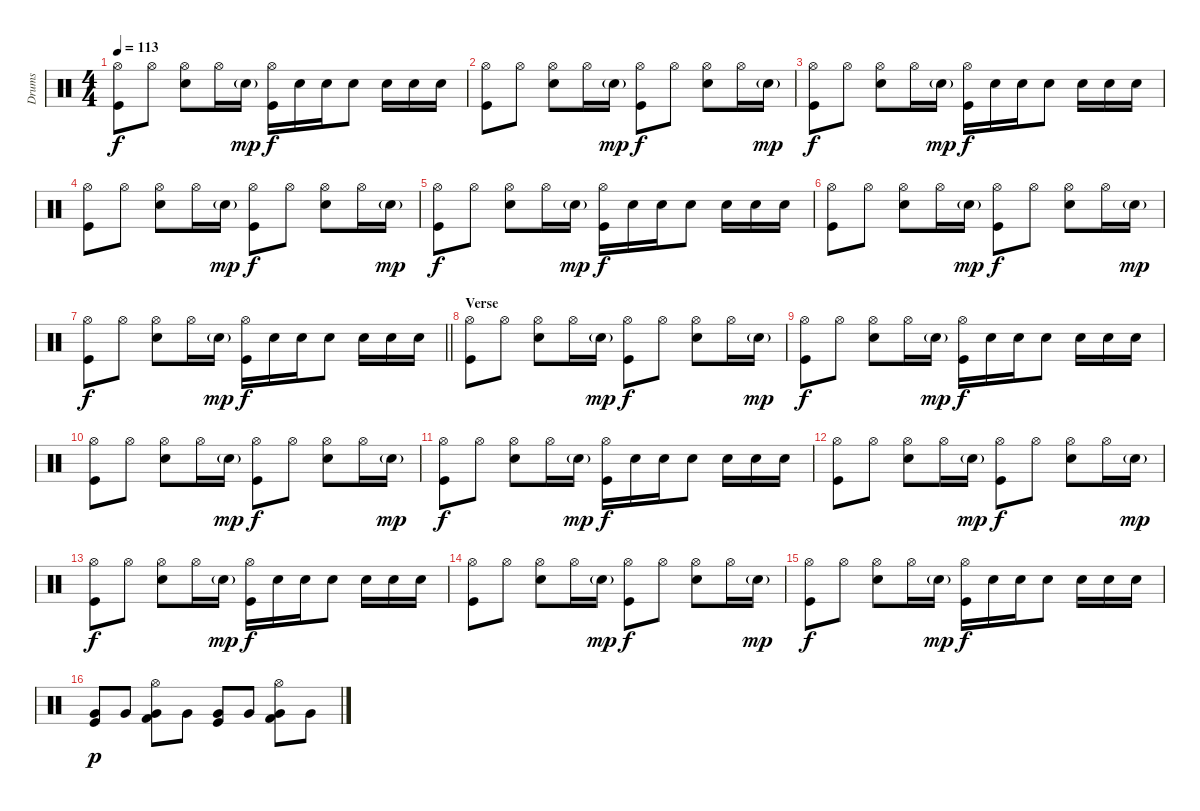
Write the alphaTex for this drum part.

\track ("Drums" "Drums") {instrument percussion}
\staff {score}
\articulation defaults
\ts (4 4)
\tempo 113
\clef neutral
\ks c
("Hi-Hat (open)" "Kick (hit)").8{dy f} "Hi-Hat (open)".8 ("Hi-Hat (open)" "Snare (hit) 2").8 "Hi-Hat (open)".16 "Snare (hit) 2"{g}.16{dy mp} ("Hi-Hat (open)" "Kick (hit)").16{dy f} "Snare (hit) 2".16 "Snare (hit) 2".16 "Snare (hit) 2".8 "Snare (hit) 2".16 "Snare (hit) 2".16 "Snare (hit) 2".16 |
("Hi-Hat (open)" "Kick (hit)").8 "Hi-Hat (open)".8 ("Hi-Hat (open)" "Snare (hit) 2").8 "Hi-Hat (open)".16 "Snare (hit) 2"{g}.16{dy mp} ("Hi-Hat (open)" "Kick (hit)").8{dy f} "Hi-Hat (open)".8 ("Hi-Hat (open)" "Snare (hit) 2").8 "Hi-Hat (open)".16 "Snare (hit) 2"{g}.16{dy mp} |
("Hi-Hat (open)" "Kick (hit)").8{dy f} "Hi-Hat (open)".8 ("Hi-Hat (open)" "Snare (hit) 2").8 "Hi-Hat (open)".16 "Snare (hit) 2"{g}.16{dy mp} ("Hi-Hat (open)" "Kick (hit)").16{dy f} "Snare (hit) 2".16 "Snare (hit) 2".16 "Snare (hit) 2".8 "Snare (hit) 2".16 "Snare (hit) 2".16 "Snare (hit) 2".16 |
("Hi-Hat (open)" "Kick (hit)").8 "Hi-Hat (open)".8 ("Hi-Hat (open)" "Snare (hit) 2").8 "Hi-Hat (open)".16 "Snare (hit) 2"{g}.16{dy mp} ("Hi-Hat (open)" "Kick (hit)").8{dy f} "Hi-Hat (open)".8 ("Hi-Hat (open)" "Snare (hit) 2").8 "Hi-Hat (open)".16 "Snare (hit) 2"{g}.16{dy mp} |
("Hi-Hat (open)" "Kick (hit)").8{dy f} "Hi-Hat (open)".8 ("Hi-Hat (open)" "Snare (hit) 2").8 "Hi-Hat (open)".16 "Snare (hit) 2"{g}.16{dy mp} ("Hi-Hat (open)" "Kick (hit)").16{dy f} "Snare (hit) 2".16 "Snare (hit) 2".16 "Snare (hit) 2".8 "Snare (hit) 2".16 "Snare (hit) 2".16 "Snare (hit) 2".16 |
("Hi-Hat (open)" "Kick (hit)").8 "Hi-Hat (open)".8 ("Hi-Hat (open)" "Snare (hit) 2").8 "Hi-Hat (open)".16 "Snare (hit) 2"{g}.16{dy mp} ("Hi-Hat (open)" "Kick (hit)").8{dy f} "Hi-Hat (open)".8 ("Hi-Hat (open)" "Snare (hit) 2").8 "Hi-Hat (open)".16 "Snare (hit) 2"{g}.16{dy mp} |
\barLineRight lightlight
("Hi-Hat (open)" "Kick (hit)").8{dy f} "Hi-Hat (open)".8 ("Hi-Hat (open)" "Snare (hit) 2").8 "Hi-Hat (open)".16 "Snare (hit) 2"{g}.16{dy mp} ("Hi-Hat (open)" "Kick (hit)").16{dy f} "Snare (hit) 2".16 "Snare (hit) 2".16 "Snare (hit) 2".8 "Snare (hit) 2".16 "Snare (hit) 2".16 "Snare (hit) 2".16 |
\section ("" "Verse")
("Hi-Hat (open)" "Kick (hit)").8 "Hi-Hat (open)".8 ("Hi-Hat (open)" "Snare (hit) 2").8 "Hi-Hat (open)".16 "Snare (hit) 2"{g}.16{dy mp} ("Hi-Hat (open)" "Kick (hit)").8{dy f} "Hi-Hat (open)".8 ("Hi-Hat (open)" "Snare (hit) 2").8 "Hi-Hat (open)".16 "Snare (hit) 2"{g}.16{dy mp} |
("Hi-Hat (open)" "Kick (hit)").8{dy f} "Hi-Hat (open)".8 ("Hi-Hat (open)" "Snare (hit) 2").8 "Hi-Hat (open)".16 "Snare (hit) 2"{g}.16{dy mp} ("Hi-Hat (open)" "Kick (hit)").16{dy f} "Snare (hit) 2".16 "Snare (hit) 2".16 "Snare (hit) 2".8 "Snare (hit) 2".16 "Snare (hit) 2".16 "Snare (hit) 2".16 |
("Hi-Hat (open)" "Kick (hit)").8 "Hi-Hat (open)".8 ("Hi-Hat (open)" "Snare (hit) 2").8 "Hi-Hat (open)".16 "Snare (hit) 2"{g}.16{dy mp} ("Hi-Hat (open)" "Kick (hit)").8{dy f} "Hi-Hat (open)".8 ("Hi-Hat (open)" "Snare (hit) 2").8 "Hi-Hat (open)".16 "Snare (hit) 2"{g}.16{dy mp} |
("Hi-Hat (open)" "Kick (hit)").8{dy f} "Hi-Hat (open)".8 ("Hi-Hat (open)" "Snare (hit) 2").8 "Hi-Hat (open)".16 "Snare (hit) 2"{g}.16{dy mp} ("Hi-Hat (open)" "Kick (hit)").16{dy f} "Snare (hit) 2".16 "Snare (hit) 2".16 "Snare (hit) 2".8 "Snare (hit) 2".16 "Snare (hit) 2".16 "Snare (hit) 2".16 |
("Hi-Hat (open)" "Kick (hit)").8 "Hi-Hat (open)".8 ("Hi-Hat (open)" "Snare (hit) 2").8 "Hi-Hat (open)".16 "Snare (hit) 2"{g}.16{dy mp} ("Hi-Hat (open)" "Kick (hit)").8{dy f} "Hi-Hat (open)".8 ("Hi-Hat (open)" "Snare (hit) 2").8 "Hi-Hat (open)".16 "Snare (hit) 2"{g}.16{dy mp} |
("Hi-Hat (open)" "Kick (hit)").8{dy f} "Hi-Hat (open)".8 ("Hi-Hat (open)" "Snare (hit) 2").8 "Hi-Hat (open)".16 "Snare (hit) 2"{g}.16{dy mp} ("Hi-Hat (open)" "Kick (hit)").16{dy f} "Snare (hit) 2".16 "Snare (hit) 2".16 "Snare (hit) 2".8 "Snare (hit) 2".16 "Snare (hit) 2".16 "Snare (hit) 2".16 |
("Hi-Hat (open)" "Kick (hit)").8 "Hi-Hat (open)".8 ("Hi-Hat (open)" "Snare (hit) 2").8 "Hi-Hat (open)".16 "Snare (hit) 2"{g}.16{dy mp} ("Hi-Hat (open)" "Kick (hit)").8{dy f} "Hi-Hat (open)".8 ("Hi-Hat (open)" "Snare (hit) 2").8 "Hi-Hat (open)".16 "Snare (hit) 2"{g}.16{dy mp} |
("Hi-Hat (open)" "Kick (hit)").8{dy f} "Hi-Hat (open)".8 ("Hi-Hat (open)" "Snare (hit) 2").8 "Hi-Hat (open)".16 "Snare (hit) 2"{g}.16{dy mp} ("Hi-Hat (open)" "Kick (hit)").16{dy f} "Snare (hit) 2".16 "Snare (hit) 2".16 "Snare (hit) 2".8 "Snare (hit) 2".16 "Snare (hit) 2".16 "Snare (hit) 2".16 |
("Very Low Tom (hit)" "Kick (hit)").8{dy p} "Very Low Tom (hit)".8 ("Hi-Hat (open)" "Kick (hit) 2" "Very Low Tom (hit)").8 "Very Low Tom (hit)".8 ("Very Low Tom (hit)" "Kick (hit)").8 "Very Low Tom (hit)".8 ("Hi-Hat (open)" "Kick (hit) 2" "Very Low Tom (hit)").8 "Very Low Tom (hit)".8
